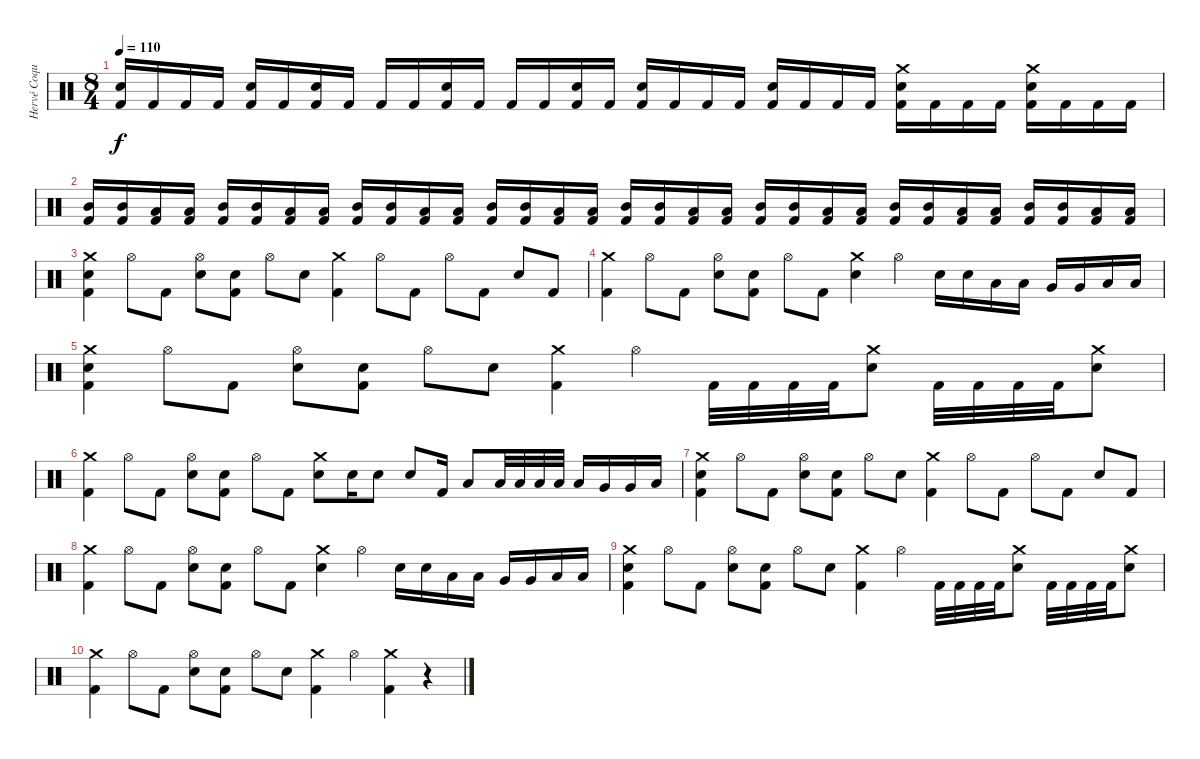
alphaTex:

\track ("Hervé Coquerel" "Hervé Coqu") {instrument percussion}
\staff {score}
\articulation defaults
\ts (8 4)
\tempo 110
\clef neutral
\ks c
("Electric Snare (hit)" "Kick (hit) 2").16{dy f} "Kick (hit) 2".16 "Kick (hit) 2".16 "Kick (hit) 2".16 ("Electric Snare (hit)" "Kick (hit) 2").16 "Kick (hit) 2".16 ("Electric Snare (hit)" "Kick (hit) 2").16 "Kick (hit) 2".16 "Kick (hit) 2".16 "Kick (hit) 2".16 ("Electric Snare (hit)" "Kick (hit) 2").16 "Kick (hit) 2".16 "Kick (hit) 2".16 "Kick (hit) 2".16 ("Electric Snare (hit)" "Kick (hit) 2").16 "Kick (hit) 2".16 ("Electric Snare (hit)" "Kick (hit) 2").16 "Kick (hit) 2".16 "Kick (hit) 2".16 "Kick (hit) 2".16 ("Electric Snare (hit)" "Kick (hit) 2").16 "Kick (hit) 2".16 "Kick (hit) 2".16 "Kick (hit) 2".16 ("Crash medium (hit)" "Electric Snare (hit)" "Kick (hit) 2").16 "Kick (hit) 2".16 "Kick (hit) 2".16 "Kick (hit) 2".16 ("Crash medium (hit)" "Electric Snare (hit)" "Kick (hit) 2").16 "Kick (hit) 2".16 "Kick (hit) 2".16 "Kick (hit) 2".16 |
("Mid Tom (hit)" "Kick (hit) 2").16 ("Mid Tom (hit)" "Kick (hit) 2").16 ("Low Tom (hit)" "Kick (hit) 2").16 ("Low Tom (hit)" "Kick (hit) 2").16 ("Mid Tom (hit)" "Kick (hit) 2").16 ("Mid Tom (hit)" "Kick (hit) 2").16 ("Low Tom (hit)" "Kick (hit) 2").16 ("Low Tom (hit)" "Kick (hit) 2").16 ("Mid Tom (hit)" "Kick (hit) 2").16 ("Mid Tom (hit)" "Kick (hit) 2").16 ("Low Tom (hit)" "Kick (hit) 2").16 ("Low Tom (hit)" "Kick (hit) 2").16 ("Mid Tom (hit)" "Kick (hit) 2").16 ("Mid Tom (hit)" "Kick (hit) 2").16 ("Low Tom (hit)" "Kick (hit) 2").16 ("Low Tom (hit)" "Kick (hit) 2").16 ("Mid Tom (hit)" "Kick (hit) 2").16 ("Mid Tom (hit)" "Kick (hit) 2").16 ("Low Tom (hit)" "Kick (hit) 2").16 ("Low Tom (hit)" "Kick (hit) 2").16 ("Mid Tom (hit)" "Kick (hit) 2").16 ("Mid Tom (hit)" "Kick (hit) 2").16 ("Low Tom (hit)" "Kick (hit) 2").16 ("Low Tom (hit)" "Kick (hit) 2").16 ("Mid Tom (hit)" "Kick (hit) 2").16 ("Mid Tom (hit)" "Kick (hit) 2").16 ("Low Tom (hit)" "Kick (hit) 2").16 ("Low Tom (hit)" "Kick (hit) 2").16 ("Mid Tom (hit)" "Kick (hit) 2").16 ("Mid Tom (hit)" "Kick (hit) 2").16 ("Low Tom (hit)" "Kick (hit) 2").16 ("Low Tom (hit)" "Kick (hit) 2").16 |
("Crash medium (hit)" "Electric Snare (hit)" "Kick (hit) 2").4 "Hi-Hat (open)".8 "Kick (hit) 2".8 ("Hi-Hat (open)" "Electric Snare (hit)").8 ("Electric Snare (hit)" "Kick (hit) 2").8 "Hi-Hat (open)".8 "Electric Snare (hit)".8 ("Crash medium (hit)" "Kick (hit) 2").4 "Hi-Hat (open)".8 "Kick (hit) 2".8 "Hi-Hat (open)".8 "Kick (hit) 2".8 "Electric Snare (hit)".8 "Kick (hit) 2".8 |
("Crash medium (hit)" "Kick (hit) 2").4 "Hi-Hat (open)".8 "Kick (hit) 2".8 ("Hi-Hat (open)" "Electric Snare (hit)").8 ("Electric Snare (hit)" "Kick (hit) 2").8 "Hi-Hat (open)".8 "Kick (hit) 2".8 ("Crash medium (hit)" "Electric Snare (hit)").4 "Hi-Hat (open)".4 "Electric Snare (hit)".16 "Electric Snare (hit)".16 "Low Tom (hit)".16 "Low Tom (hit)".16 "Very Low Tom (hit)".16 "Very Low Tom (hit)".16 "Low Floor Tom (hit)".16 "Low Floor Tom (hit)".16 |
("Crash medium (hit)" "Electric Snare (hit)" "Kick (hit) 2").4 "Hi-Hat (open)".8 "Kick (hit) 2".8 ("Hi-Hat (open)" "Electric Snare (hit)").8 ("Electric Snare (hit)" "Kick (hit) 2").8 "Hi-Hat (open)".8 "Electric Snare (hit)".8 ("Crash medium (hit)" "Kick (hit) 2").4 "Hi-Hat (open)".4 "Kick (hit) 2".32 "Kick (hit) 2".32 "Kick (hit) 2".32 "Kick (hit) 2".32 ("Crash medium (hit)" "Electric Snare (hit)").8 "Kick (hit) 2".32 "Kick (hit) 2".32 "Kick (hit) 2".32 "Kick (hit) 2".32 ("Crash medium (hit)" "Electric Snare (hit)").8 |
("Crash medium (hit)" "Kick (hit) 2").4 "Hi-Hat (open)".8 "Kick (hit) 2".8 ("Hi-Hat (open)" "Electric Snare (hit)").8 ("Electric Snare (hit)" "Kick (hit) 2").8 "Hi-Hat (open)".8 "Kick (hit) 2".8 ("Crash medium (hit)" "Electric Snare (hit)").8 "Electric Snare (hit)".16 "Electric Snare (hit)".8 "Electric Snare (hit)".8 "Kick (hit) 2".16 "Low Tom (hit)".8 "Low Tom (hit)".32 "Low Tom (hit)".32 "Low Tom (hit)".32 "Low Tom (hit)".32 "Low Tom (hit)".16 "Very Low Tom (hit)".16 "Very Low Tom (hit)".16 "Low Floor Tom (hit)".16 |
("Crash medium (hit)" "Electric Snare (hit)" "Kick (hit) 2").4 "Hi-Hat (open)".8 "Kick (hit) 2".8 ("Hi-Hat (open)" "Electric Snare (hit)").8 ("Electric Snare (hit)" "Kick (hit) 2").8 "Hi-Hat (open)".8 "Electric Snare (hit)".8 ("Crash medium (hit)" "Kick (hit) 2").4 "Hi-Hat (open)".8 "Kick (hit) 2".8 "Hi-Hat (open)".8 "Kick (hit) 2".8 "Electric Snare (hit)".8 "Kick (hit) 2".8 |
("Crash medium (hit)" "Kick (hit) 2").4 "Hi-Hat (open)".8 "Kick (hit) 2".8 ("Hi-Hat (open)" "Electric Snare (hit)").8 ("Electric Snare (hit)" "Kick (hit) 2").8 "Hi-Hat (open)".8 "Kick (hit) 2".8 ("Crash medium (hit)" "Electric Snare (hit)").4 "Hi-Hat (open)".4 "Electric Snare (hit)".16 "Electric Snare (hit)".16 "Low Tom (hit)".16 "Low Tom (hit)".16 "Very Low Tom (hit)".16 "Very Low Tom (hit)".16 "Low Floor Tom (hit)".16 "Low Floor Tom (hit)".16 |
("Crash medium (hit)" "Electric Snare (hit)" "Kick (hit) 2").4 "Hi-Hat (open)".8 "Kick (hit) 2".8 ("Hi-Hat (open)" "Electric Snare (hit)").8 ("Electric Snare (hit)" "Kick (hit) 2").8 "Hi-Hat (open)".8 "Electric Snare (hit)".8 ("Crash medium (hit)" "Kick (hit) 2").4 "Hi-Hat (open)".4 "Kick (hit) 2".32 "Kick (hit) 2".32 "Kick (hit) 2".32 "Kick (hit) 2".32 ("Crash medium (hit)" "Electric Snare (hit)").8 "Kick (hit) 2".32 "Kick (hit) 2".32 "Kick (hit) 2".32 "Kick (hit) 2".32 ("Crash medium (hit)" "Electric Snare (hit)").8 |
("Crash medium (hit)" "Kick (hit) 2").4 "Hi-Hat (open)".8 "Kick (hit) 2".8 ("Hi-Hat (open)" "Electric Snare (hit)").8 ("Electric Snare (hit)" "Kick (hit) 2").8 "Hi-Hat (open)".8 "Electric Snare (hit)".8 ("Crash medium (hit)" "Kick (hit) 2").4 "Hi-Hat (open)".4 ("Crash medium (hit)" "Kick (hit) 2").4 r.4
